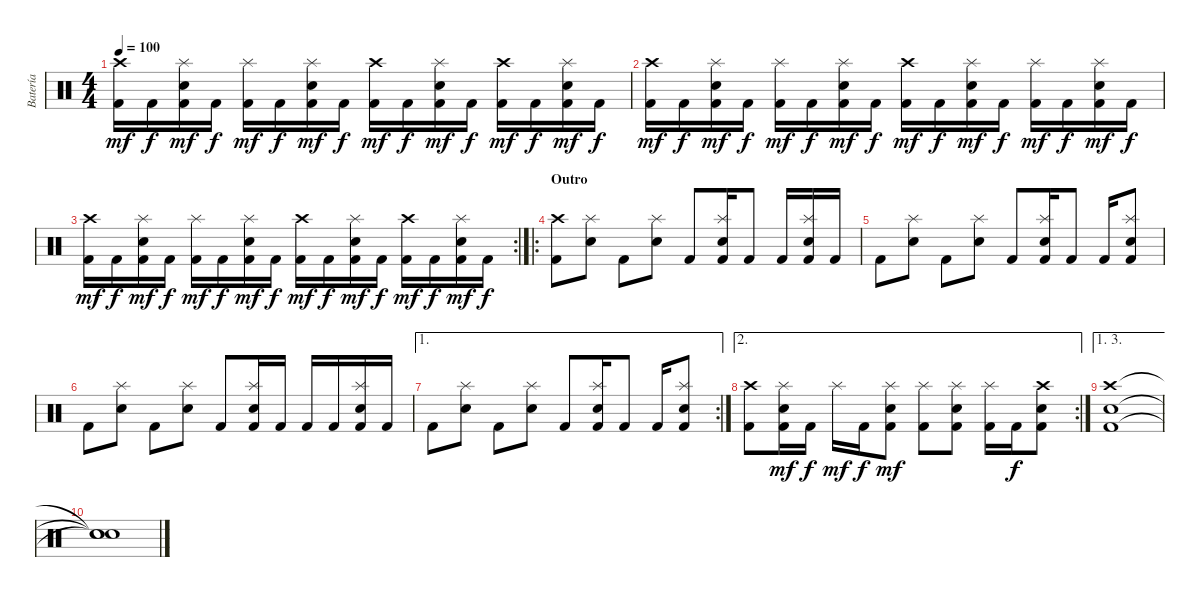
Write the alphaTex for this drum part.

\track ("Batería" "Batería") {instrument percussion}
\staff {score}
\articulation defaults
\ts (4 4)
\tempo 100
\clef neutral
\ks c
("Crash high (hit)" "Kick (hit) 2").16{dy mf} "Kick (hit) 2".16{dy f} ("Splash (hit)" "Snare (hit) 2" "Kick (hit) 2").16{dy mf} "Kick (hit) 2".16{dy f} ("Splash (hit)" "Kick (hit) 2").16{dy mf} "Kick (hit) 2".16{dy f} ("Splash (hit)" "Snare (hit) 2" "Kick (hit) 2").16{dy mf} "Kick (hit) 2".16{dy f} ("Crash high (hit)" "Kick (hit) 2").16{dy mf} "Kick (hit) 2".16{dy f} ("Splash (hit)" "Snare (hit) 2" "Kick (hit) 2").16{dy mf} "Kick (hit) 2".16{dy f} ("Crash high (hit)" "Kick (hit) 2").16{dy mf} "Kick (hit) 2".16{dy f} ("Splash (hit)" "Snare (hit) 2" "Kick (hit) 2").16{dy mf} "Kick (hit) 2".16{dy f} |
("Crash high (hit)" "Kick (hit) 2").16{dy mf} "Kick (hit) 2".16{dy f} ("Splash (hit)" "Snare (hit) 2" "Kick (hit) 2").16{dy mf} "Kick (hit) 2".16{dy f} ("Splash (hit)" "Kick (hit) 2").16{dy mf} "Kick (hit) 2".16{dy f} ("Splash (hit)" "Snare (hit) 2" "Kick (hit) 2").16{dy mf} "Kick (hit) 2".16{dy f} ("Crash high (hit)" "Kick (hit) 2").16{dy mf} "Kick (hit) 2".16{dy f} ("Splash (hit)" "Snare (hit) 2" "Kick (hit) 2").16{dy mf} "Kick (hit) 2".16{dy f} ("Splash (hit)" "Kick (hit) 2").16{dy mf} "Kick (hit) 2".16{dy f} ("Splash (hit)" "Snare (hit) 2" "Kick (hit) 2").16{dy mf} "Kick (hit) 2".16{dy f} |
\rc 2
("Crash high (hit)" "Kick (hit) 2").16{dy mf} "Kick (hit) 2".16{dy f} ("Splash (hit)" "Snare (hit) 2" "Kick (hit) 2").16{dy mf} "Kick (hit) 2".16{dy f} ("Splash (hit)" "Kick (hit) 2").16{dy mf} "Kick (hit) 2".16{dy f} ("Splash (hit)" "Snare (hit) 2" "Kick (hit) 2").16{dy mf} "Kick (hit) 2".16{dy f} ("Crash high (hit)" "Kick (hit) 2").16{dy mf} "Kick (hit) 2".16{dy f} ("Splash (hit)" "Snare (hit) 2" "Kick (hit) 2").16{dy mf} "Kick (hit) 2".16{dy f} ("Crash high (hit)" "Kick (hit) 2").16{dy mf} "Kick (hit) 2".16{dy f} ("Splash (hit)" "Snare (hit) 2" "Kick (hit) 2").16{dy mf} "Kick (hit) 2".16{dy f} |
\ro
\section ("" "Outro")
("Crash high (hit)" "Kick (hit) 2").8 ("Splash (hit)" "Snare (hit) 2").8 "Kick (hit) 2".8 ("Splash (hit)" "Snare (hit) 2").8 "Kick (hit) 2".8 ("Splash (hit)" "Snare (hit) 2" "Kick (hit) 2").16 "Kick (hit) 2".8 "Kick (hit) 2".16 ("Splash (hit)" "Snare (hit) 2" "Kick (hit) 2").16 "Kick (hit) 2".16 |
"Kick (hit) 2".8 ("Splash (hit)" "Snare (hit) 2").8 "Kick (hit) 2".8 ("Splash (hit)" "Snare (hit) 2").8 "Kick (hit) 2".8 ("Splash (hit)" "Snare (hit) 2" "Kick (hit) 2").16 "Kick (hit) 2".8 "Kick (hit) 2".16 ("Splash (hit)" "Snare (hit) 2" "Kick (hit) 2").8 |
"Kick (hit) 2".8 ("Splash (hit)" "Snare (hit) 2").8 "Kick (hit) 2".8 ("Splash (hit)" "Snare (hit) 2").8 "Kick (hit) 2".8 ("Splash (hit)" "Snare (hit) 2" "Kick (hit) 2").16 "Kick (hit) 2".16 "Kick (hit) 2".16 "Kick (hit) 2".16 ("Splash (hit)" "Snare (hit) 2" "Kick (hit) 2").16 "Kick (hit) 2".16 |
\ae 1
\rc 2 "Kick (hit) 2".8
("Splash (hit)" "Snare (hit) 2").8 "Kick (hit) 2".8 ("Splash (hit)" "Snare (hit) 2").8 "Kick (hit) 2".8 ("Splash (hit)" "Snare (hit) 2" "Kick (hit) 2").16 "Kick (hit) 2".8 "Kick (hit) 2".16 ("Splash (hit)" "Snare (hit) 2" "Kick (hit) 2").8 |
\ae 2
\rc 2
("Crash high (hit)" "Kick (hit) 2").8 ("Splash (hit)" "Snare (hit) 2" "Kick (hit) 2").16{dy mf} "Kick (hit) 2".16{dy f} "Splash (hit)".16{dy mf} "Kick (hit) 2".16{dy f} ("Splash (hit)" "Snare (hit) 2" "Kick (hit) 2").8{dy mf} ("Splash (hit)" "Kick (hit) 2").8 ("Splash (hit)" "Snare (hit) 2" "Kick (hit) 2").8 ("Splash (hit)" "Kick (hit) 2").16 "Kick (hit) 2".16{dy f} ("Crash high (hit)" "Snare (hit) 2" "Kick (hit) 2").8 |
\ae (1 3)
("Crash high (hit)" "Snare (hit) 2" "Kick (hit) 2").1 |
("Snare (hit)"{t} "Snare (hit)"{t} "Snare (hit)"{t}).1
